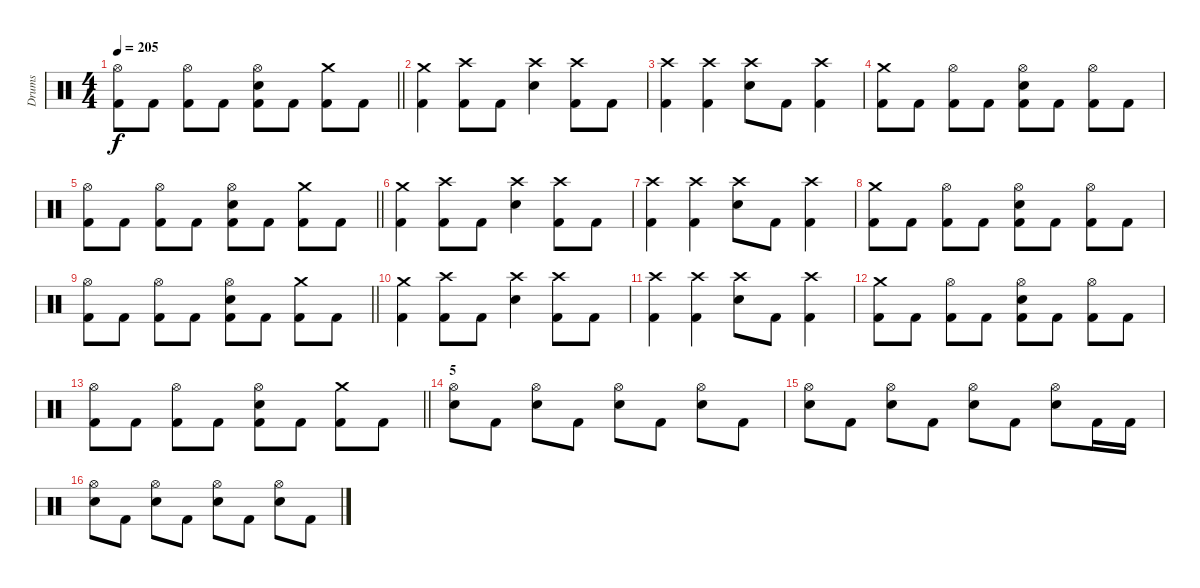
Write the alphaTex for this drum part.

\track ("Drums" "Drums") {instrument percussion}
\staff {score}
\articulation defaults
\ts (4 4)
\tempo 205
\clef neutral
\barLineRight lightlight
\ks c
("Hi-Hat (open)" "Kick (hit) 2").8{dy f} "Kick (hit) 2".8 ("Hi-Hat (open)" "Kick (hit) 2").8 "Kick (hit) 2".8 ("Hi-Hat (open)" "Electric Snare (hit)" "Kick (hit) 2").8 "Kick (hit) 2".8 ("Crash medium (hit)" "Kick (hit) 2").8 "Kick (hit) 2".8 |
("Crash medium (hit)" "Kick (hit) 2").4 ("Crash high (hit)" "Kick (hit) 2").8 "Kick (hit) 2".8 ("Crash high (hit)" "Electric Snare (hit)").4 ("Crash high (hit)" "Kick (hit) 2").8 "Kick (hit) 2".8 |
("Crash high (hit)" "Kick (hit) 2").4 ("Crash high (hit)" "Kick (hit) 2").4 ("Crash high (hit)" "Electric Snare (hit)").8 "Kick (hit) 2".8 ("Crash high (hit)" "Kick (hit) 2").4 |
("Crash medium (hit)" "Kick (hit) 2").8 "Kick (hit) 2".8 ("Hi-Hat (open)" "Kick (hit) 2").8 "Kick (hit) 2".8 ("Hi-Hat (open)" "Electric Snare (hit)" "Kick (hit) 2").8 "Kick (hit) 2".8 ("Hi-Hat (open)" "Kick (hit) 2").8 "Kick (hit) 2".8 |
\barLineRight lightlight
("Hi-Hat (open)" "Kick (hit) 2").8 "Kick (hit) 2".8 ("Hi-Hat (open)" "Kick (hit) 2").8 "Kick (hit) 2".8 ("Hi-Hat (open)" "Electric Snare (hit)" "Kick (hit) 2").8 "Kick (hit) 2".8 ("Crash medium (hit)" "Kick (hit) 2").8 "Kick (hit) 2".8 |
("Crash medium (hit)" "Kick (hit) 2").4 ("Crash high (hit)" "Kick (hit) 2").8 "Kick (hit) 2".8 ("Crash high (hit)" "Electric Snare (hit)").4 ("Crash high (hit)" "Kick (hit) 2").8 "Kick (hit) 2".8 |
("Crash high (hit)" "Kick (hit) 2").4 ("Crash high (hit)" "Kick (hit) 2").4 ("Crash high (hit)" "Electric Snare (hit)").8 "Kick (hit) 2".8 ("Crash high (hit)" "Kick (hit) 2").4 |
("Crash medium (hit)" "Kick (hit) 2").8 "Kick (hit) 2".8 ("Hi-Hat (open)" "Kick (hit) 2").8 "Kick (hit) 2".8 ("Hi-Hat (open)" "Electric Snare (hit)" "Kick (hit) 2").8 "Kick (hit) 2".8 ("Hi-Hat (open)" "Kick (hit) 2").8 "Kick (hit) 2".8 |
\barLineRight lightlight
("Hi-Hat (open)" "Kick (hit) 2").8 "Kick (hit) 2".8 ("Hi-Hat (open)" "Kick (hit) 2").8 "Kick (hit) 2".8 ("Hi-Hat (open)" "Electric Snare (hit)" "Kick (hit) 2").8 "Kick (hit) 2".8 ("Crash medium (hit)" "Kick (hit) 2").8 "Kick (hit) 2".8 |
("Crash medium (hit)" "Kick (hit) 2").4 ("Crash high (hit)" "Kick (hit) 2").8 "Kick (hit) 2".8 ("Crash high (hit)" "Electric Snare (hit)").4 ("Crash high (hit)" "Kick (hit) 2").8 "Kick (hit) 2".8 |
("Crash high (hit)" "Kick (hit) 2").4 ("Crash high (hit)" "Kick (hit) 2").4 ("Crash high (hit)" "Electric Snare (hit)").8 "Kick (hit) 2".8 ("Crash high (hit)" "Kick (hit) 2").4 |
("Crash medium (hit)" "Kick (hit) 2").8 "Kick (hit) 2".8 ("Hi-Hat (open)" "Kick (hit) 2").8 "Kick (hit) 2".8 ("Hi-Hat (open)" "Electric Snare (hit)" "Kick (hit) 2").8 "Kick (hit) 2".8 ("Hi-Hat (open)" "Kick (hit) 2").8 "Kick (hit) 2".8 |
\barLineRight lightlight
("Hi-Hat (open)" "Kick (hit) 2").8 "Kick (hit) 2".8 ("Hi-Hat (open)" "Kick (hit) 2").8 "Kick (hit) 2".8 ("Hi-Hat (open)" "Electric Snare (hit)" "Kick (hit) 2").8 "Kick (hit) 2".8 ("Crash medium (hit)" "Kick (hit) 2").8 "Kick (hit) 2".8 |
\section ("" "5")
("Hi-Hat (open)" "Electric Snare (hit)").8 "Kick (hit) 2".8 ("Hi-Hat (open)" "Electric Snare (hit)").8 "Kick (hit) 2".8 ("Hi-Hat (open)" "Electric Snare (hit)").8 "Kick (hit) 2".8 ("Hi-Hat (open)" "Electric Snare (hit)").8 "Kick (hit) 2".8 |
("Hi-Hat (open)" "Electric Snare (hit)").8 "Kick (hit) 2".8 ("Hi-Hat (open)" "Electric Snare (hit)").8 "Kick (hit) 2".8 ("Hi-Hat (open)" "Electric Snare (hit)").8 "Kick (hit) 2".8 ("Hi-Hat (open)" "Electric Snare (hit)").8 "Kick (hit) 2".16 "Kick (hit) 2".16 |
("Hi-Hat (open)" "Electric Snare (hit)").8 "Kick (hit) 2".8 ("Hi-Hat (open)" "Electric Snare (hit)").8 "Kick (hit) 2".8 ("Hi-Hat (open)" "Electric Snare (hit)").8 "Kick (hit) 2".8 ("Hi-Hat (open)" "Electric Snare (hit)").8 "Kick (hit) 2".8
